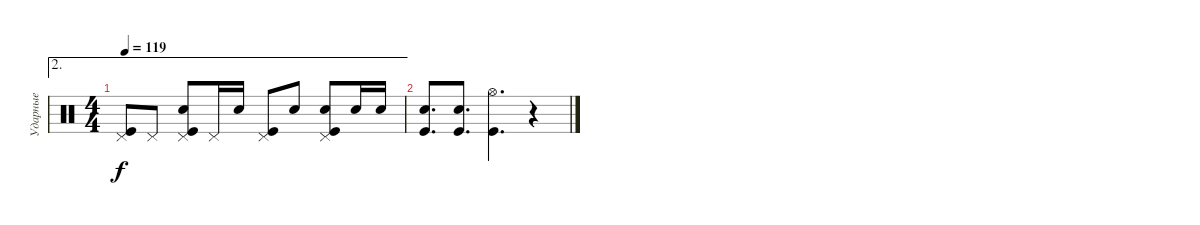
\track ("Ударные" "Ударные") {instrument percussion}
\staff {score}
\articulation defaults
\ae 2
\ts (4 4)
\tempo 119
\clef neutral
\ks c
("Kick (hit)" "Pedal Hi-Hat (hit)").8{dy f} "Pedal Hi-Hat (hit)".8 ("Kick (hit)" "Electric Snare (hit)" "Pedal Hi-Hat (hit)").8 "Pedal Hi-Hat (hit)".16 "Electric Snare (hit)".16 ("Kick (hit)" "Pedal Hi-Hat (hit)").8 "Electric Snare (hit)".8 ("Kick (hit)" "Electric Snare (hit)" "Pedal Hi-Hat (hit)").8 "Electric Snare (hit)".16 "Electric Snare (hit)".16 |
("Kick (hit)" "Electric Snare (hit)").8{d} ("Kick (hit)" "Electric Snare (hit)").8{d} ("Kick (hit)" "Hi-Hat (open)").4{d} r.4
